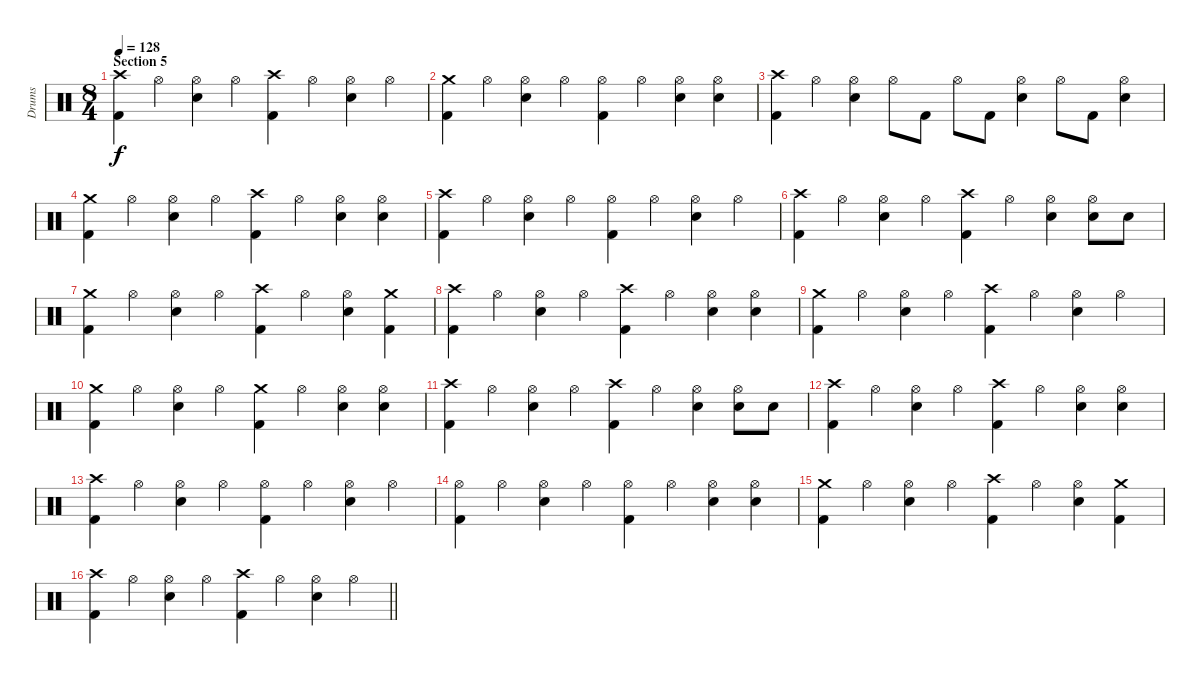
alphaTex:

\track ("Drums" "Drums") {instrument percussion}
\staff {score}
\articulation defaults
\ts (8 4)
\section ("" "Section 5")
\tempo 128
\clef neutral
\ks c
("Crash high (hit)" "Kick (hit) 2").4{dy f} "Hi-Hat (open)".4 ("Hi-Hat (open)" "Electric Snare (hit)").4 "Hi-Hat (open)".4 ("Crash high (hit)" "Kick (hit) 2").4 "Hi-Hat (open)".4 ("Hi-Hat (open)" "Electric Snare (hit)").4 "Hi-Hat (open)".4 |
("Crash medium (hit)" "Kick (hit) 2").4 "Hi-Hat (open)".4 ("Hi-Hat (open)" "Electric Snare (hit)").4 "Hi-Hat (open)".4 ("Hi-Hat (open)" "Kick (hit) 2").4 "Hi-Hat (open)".4 ("Hi-Hat (open)" "Electric Snare (hit)").4 ("Hi-Hat (open)" "Electric Snare (hit)").4 |
("Crash high (hit)" "Kick (hit) 2").4 "Hi-Hat (open)".4 ("Hi-Hat (open)" "Electric Snare (hit)").4 "Hi-Hat (open)".8 "Kick (hit) 2".8 "Hi-Hat (open)".8 "Kick (hit) 2".8 ("Hi-Hat (open)" "Electric Snare (hit)").4 "Hi-Hat (open)".8 "Kick (hit) 2".8 ("Hi-Hat (open)" "Electric Snare (hit)").4 |
("Crash medium (hit)" "Kick (hit) 2").4 "Hi-Hat (open)".4 ("Hi-Hat (open)" "Electric Snare (hit)").4 "Hi-Hat (open)".4 ("Crash high (hit)" "Kick (hit) 2").4 "Hi-Hat (open)".4 ("Hi-Hat (open)" "Electric Snare (hit)").4 ("Hi-Hat (open)" "Electric Snare (hit)").4 |
("Crash high (hit)" "Kick (hit) 2").4 "Hi-Hat (open)".4 ("Hi-Hat (open)" "Electric Snare (hit)").4 "Hi-Hat (open)".4 ("Hi-Hat (open)" "Kick (hit) 2").4 "Hi-Hat (open)".4 ("Hi-Hat (open)" "Electric Snare (hit)").4 "Hi-Hat (open)".4 |
("Crash high (hit)" "Kick (hit) 2").4 "Hi-Hat (open)".4 ("Hi-Hat (open)" "Electric Snare (hit)").4 "Hi-Hat (open)".4 ("Crash high (hit)" "Kick (hit) 2").4 "Hi-Hat (open)".4 ("Hi-Hat (open)" "Electric Snare (hit)").4 ("Hi-Hat (open)" "Electric Snare (hit)").8 "Electric Snare (hit)".8 |
("Crash medium (hit)" "Kick (hit) 2").4 "Hi-Hat (open)".4 ("Hi-Hat (open)" "Electric Snare (hit)").4 "Hi-Hat (open)".4 ("Crash high (hit)" "Kick (hit) 2").4 "Hi-Hat (open)".4 ("Hi-Hat (open)" "Electric Snare (hit)").4 ("Crash medium (hit)" "Kick (hit) 2").4 |
("Crash high (hit)" "Kick (hit) 2").4 "Hi-Hat (open)".4 ("Hi-Hat (open)" "Electric Snare (hit)").4 "Hi-Hat (open)".4 ("Crash high (hit)" "Kick (hit) 2").4 "Hi-Hat (open)".4 ("Hi-Hat (open)" "Electric Snare (hit)").4 ("Hi-Hat (open)" "Electric Snare (hit)").4 |
("Crash medium (hit)" "Kick (hit) 2").4 "Hi-Hat (open)".4 ("Hi-Hat (open)" "Electric Snare (hit)").4 "Hi-Hat (open)".4 ("Crash high (hit)" "Kick (hit) 2").4 "Hi-Hat (open)".4 ("Hi-Hat (open)" "Electric Snare (hit)").4 "Hi-Hat (open)".4 |
("Crash medium (hit)" "Kick (hit) 2").4 "Hi-Hat (open)".4 ("Hi-Hat (open)" "Electric Snare (hit)").4 "Hi-Hat (open)".4 ("Crash medium (hit)" "Kick (hit) 2").4 "Hi-Hat (open)".4 ("Hi-Hat (open)" "Electric Snare (hit)").4 ("Hi-Hat (open)" "Electric Snare (hit)").4 |
("Crash high (hit)" "Kick (hit) 2").4 "Hi-Hat (open)".4 ("Hi-Hat (open)" "Electric Snare (hit)").4 "Hi-Hat (open)".4 ("Crash high (hit)" "Kick (hit) 2").4 "Hi-Hat (open)".4 ("Hi-Hat (open)" "Electric Snare (hit)").4 ("Hi-Hat (open)" "Electric Snare (hit)").8 "Electric Snare (hit)".8 |
("Crash high (hit)" "Kick (hit) 2").4 "Hi-Hat (open)".4 ("Hi-Hat (open)" "Electric Snare (hit)").4 "Hi-Hat (open)".4 ("Crash high (hit)" "Kick (hit) 2").4 "Hi-Hat (open)".4 ("Hi-Hat (open)" "Electric Snare (hit)").4 ("Hi-Hat (open)" "Electric Snare (hit)").4 |
("Crash high (hit)" "Kick (hit) 2").4 "Hi-Hat (open)".4 ("Hi-Hat (open)" "Electric Snare (hit)").4 "Hi-Hat (open)".4 ("Hi-Hat (open)" "Kick (hit) 2").4 "Hi-Hat (open)".4 ("Hi-Hat (open)" "Electric Snare (hit)").4 "Hi-Hat (open)".4 |
("Hi-Hat (open)" "Kick (hit) 2").4 "Hi-Hat (open)".4 ("Hi-Hat (open)" "Electric Snare (hit)").4 "Hi-Hat (open)".4 ("Hi-Hat (open)" "Kick (hit) 2").4 "Hi-Hat (open)".4 ("Hi-Hat (open)" "Electric Snare (hit)").4 ("Hi-Hat (open)" "Electric Snare (hit)").4 |
("Crash medium (hit)" "Kick (hit) 2").4 "Hi-Hat (open)".4 ("Hi-Hat (open)" "Electric Snare (hit)").4 "Hi-Hat (open)".4 ("Crash high (hit)" "Kick (hit) 2").4 "Hi-Hat (open)".4 ("Hi-Hat (open)" "Electric Snare (hit)").4 ("Crash medium (hit)" "Kick (hit) 2").4 |
\barLineRight lightlight
("Crash high (hit)" "Kick (hit) 2").4 "Hi-Hat (open)".4 ("Hi-Hat (open)" "Electric Snare (hit)").4 "Hi-Hat (open)".4 ("Crash high (hit)" "Kick (hit) 2").4 "Hi-Hat (open)".4 ("Hi-Hat (open)" "Electric Snare (hit)").4 "Hi-Hat (open)".4
